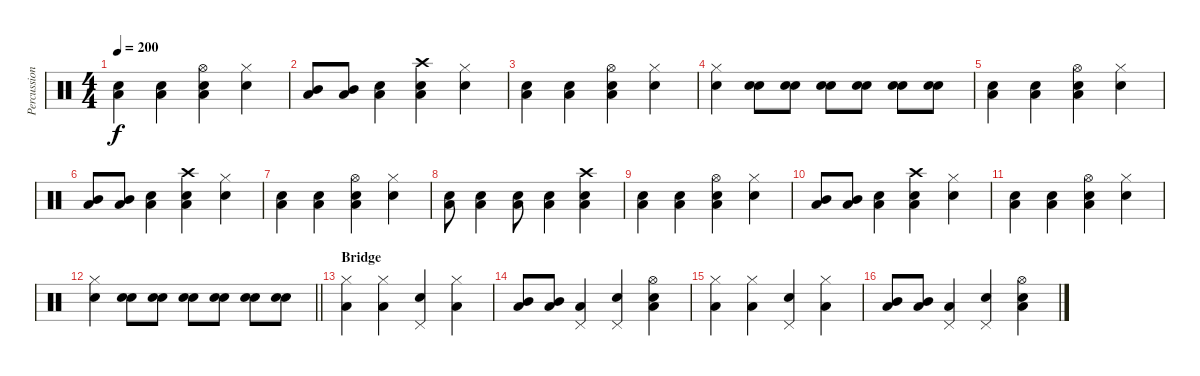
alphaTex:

\track ("Percussion" "Percussion") {instrument percussion}
\staff {score}
\articulation defaults
\ts (4 4)
\tempo 200
\clef neutral
\ks c
("Electric Snare (hit)" "Low Tom (hit)").4{dy f} ("Electric Snare (hit)" "Low Tom (hit)").4 ("Snare (hit) 2" "Low Tom (hit)" "Hi-Hat (open)").4 ("Electric Snare (hit)" "Hi-Hat (closed)").4 |
("Mid Tom (hit)" "Low Tom (hit)").8 ("Mid Tom (hit)" "Low Tom (hit)").8 ("Snare (hit) 2" "Low Tom (hit)").4 ("Electric Snare (hit)" "Low Tom (hit)" "Crash high (hit)").4 ("Electric Snare (hit)" "Hi-Hat (closed)").4 |
("Electric Snare (hit)" "Low Tom (hit)").4 ("Electric Snare (hit)" "Low Tom (hit)").4 ("Snare (hit) 2" "Low Tom (hit)" "Hi-Hat (open)").4 ("Electric Snare (hit)" "Hi-Hat (closed)").4 |
("Electric Snare (hit)" "Hi-Hat (closed)").4 ("Snare (hit) 2" "Electric Snare (hit)").8 ("Snare (hit) 2" "Electric Snare (hit)").8 ("Snare (hit) 2" "Electric Snare (hit)").8 ("Snare (hit) 2" "Electric Snare (hit)").8 ("Snare (hit) 2" "Electric Snare (hit)").8 ("Snare (hit) 2" "Electric Snare (hit)").8 |
("Electric Snare (hit)" "Low Tom (hit)").4 ("Electric Snare (hit)" "Low Tom (hit)").4 ("Snare (hit) 2" "Low Tom (hit)" "Hi-Hat (open)").4 ("Electric Snare (hit)" "Hi-Hat (closed)").4 |
("Mid Tom (hit)" "Low Tom (hit)").8 ("Mid Tom (hit)" "Low Tom (hit)").8 ("Snare (hit) 2" "Low Tom (hit)").4 ("Electric Snare (hit)" "Low Tom (hit)" "Crash high (hit)").4 ("Electric Snare (hit)" "Hi-Hat (closed)").4 |
("Electric Snare (hit)" "Low Tom (hit)").4 ("Electric Snare (hit)" "Low Tom (hit)").4 ("Snare (hit) 2" "Low Tom (hit)" "Hi-Hat (open)").4 ("Electric Snare (hit)" "Hi-Hat (closed)").4 |
("Snare (hit) 2" "Low Tom (hit)").8 ("Snare (hit) 2" "Low Tom (hit)").4 ("Snare (hit) 2" "Low Tom (hit)").8 ("Snare (hit) 2" "Low Tom (hit)").4 ("Electric Snare (hit)" "Low Tom (hit)" "Crash high (hit)").4 |
("Electric Snare (hit)" "Low Tom (hit)").4 ("Electric Snare (hit)" "Low Tom (hit)").4 ("Snare (hit) 2" "Low Tom (hit)" "Hi-Hat (open)").4 ("Electric Snare (hit)" "Hi-Hat (closed)").4 |
("Mid Tom (hit)" "Low Tom (hit)").8 ("Mid Tom (hit)" "Low Tom (hit)").8 ("Snare (hit) 2" "Low Tom (hit)").4 ("Electric Snare (hit)" "Low Tom (hit)" "Crash high (hit)").4 ("Electric Snare (hit)" "Hi-Hat (closed)").4 |
("Electric Snare (hit)" "Low Tom (hit)").4 ("Electric Snare (hit)" "Low Tom (hit)").4 ("Snare (hit) 2" "Low Tom (hit)" "Hi-Hat (open)").4 ("Electric Snare (hit)" "Hi-Hat (closed)").4 |
\barLineRight lightlight
("Electric Snare (hit)" "Hi-Hat (closed)").4 ("Snare (hit) 2" "Electric Snare (hit)").8 ("Snare (hit) 2" "Electric Snare (hit)").8 ("Snare (hit) 2" "Electric Snare (hit)").8 ("Snare (hit) 2" "Electric Snare (hit)").8 ("Snare (hit) 2" "Electric Snare (hit)").8 ("Snare (hit) 2" "Electric Snare (hit)").8 |
\section ("" "Bridge")
("Hi-Hat (closed)" "Low Tom (hit)").4 ("Hi-Hat (closed)" "Low Tom (hit)").4 ("Electric Snare (hit)" "Pedal Hi-Hat (hit)").4 ("Hi-Hat (closed)" "Low Tom (hit)").4 |
("Low Floor Tom (hit)" "Mid Tom (hit)").8 ("Low Floor Tom (hit)" "Mid Tom (hit)").8 ("Pedal Hi-Hat (hit)" "Low Tom (hit)").4 ("Snare (hit) 2" "Pedal Hi-Hat (hit)").4 ("Electric Snare (hit)" "Low Tom (hit)" "Hi-Hat (open)").4 |
("Hi-Hat (closed)" "Low Tom (hit)").4 ("Hi-Hat (closed)" "Low Tom (hit)").4 ("Electric Snare (hit)" "Pedal Hi-Hat (hit)").4 ("Hi-Hat (closed)" "Low Tom (hit)").4 |
("Low Floor Tom (hit)" "Mid Tom (hit)").8 ("Low Floor Tom (hit)" "Mid Tom (hit)").8 ("Pedal Hi-Hat (hit)" "Low Tom (hit)").4 ("Snare (hit) 2" "Pedal Hi-Hat (hit)").4 ("Electric Snare (hit)" "Low Tom (hit)" "Hi-Hat (open)").4
